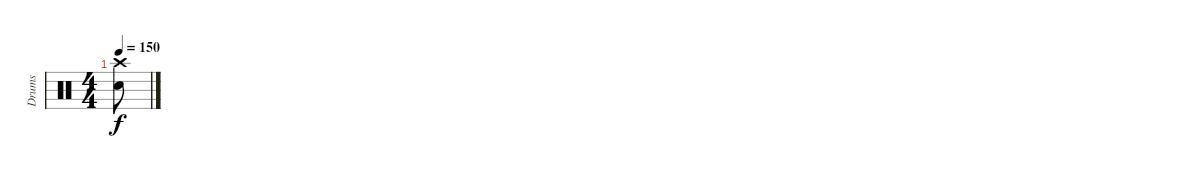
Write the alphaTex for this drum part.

\track ("Drums" "Drums") {instrument percussion}
\staff {score}
\articulation defaults
\ts (4 4)
\tempo 150
\clef neutral
\ks c
("Electric Snare (hit)" "Crash high (hit)").8{dy f}
